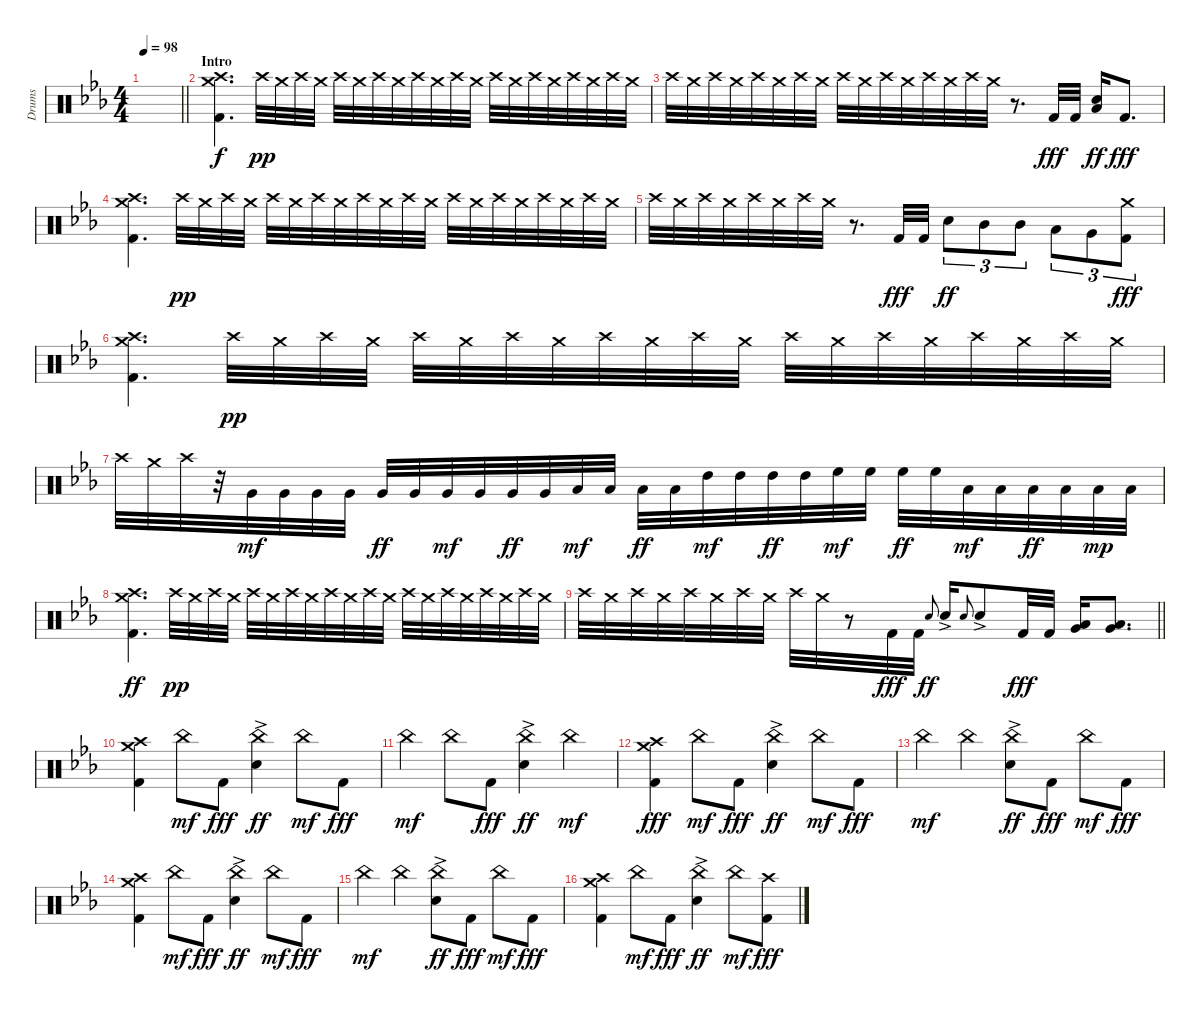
\track ("Drums" "Drums") {instrument percussion}
\staff {score}
\articulation defaults
\ts (4 4)
\tempo 98
\clef neutral
\barLineRight lightlight
\ks cminor
|
\section ("" "Intro")
("Crash high (hit)" "Crash medium (hit)" "Kick (hit) 2").4{d} "Crash high (hit)".32{dy pp volume 13} "Crash medium (hit)".32 "Crash high (hit)".32 "Crash medium (hit)".32 "Crash high (hit)".32 "Crash medium (hit)".32 "Crash high (hit)".32 "Crash medium (hit)".32 "Crash high (hit)".32 "Crash medium (hit)".32 "Crash high (hit)".32 "Crash medium (hit)".32 "Crash high (hit)".32 "Crash medium (hit)".32 "Crash high (hit)".32 "Crash medium (hit)".32 "Crash high (hit)".32 "Crash medium (hit)".32 "Crash high (hit)".32 "Crash medium (hit)".32 |
"Crash high (hit)".32 "Crash medium (hit)".32 "Crash high (hit)".32 "Crash medium (hit)".32 "Crash high (hit)".32 "Crash medium (hit)".32 "Crash high (hit)".32 "Crash medium (hit)".32 "Crash high (hit)".32 "Crash medium (hit)".32 "Crash high (hit)".32 "Crash medium (hit)".32 "Crash high (hit)".32 "Crash medium (hit)".32 "Crash high (hit)".32 "Crash medium (hit)".32 r.8{d} "Kick (hit) 2".32{dy fff volume 15} "Kick (hit) 2".32 ("Low Tom (hit)" "Electric Snare (hit)").16{dy ff} "Kick (hit) 2".8{d dy fff} |
("Crash high (hit)" "Crash medium (hit)" "Kick (hit) 2").4{d} "Crash high (hit)".32{dy pp volume 14} "Crash medium (hit)".32 "Crash high (hit)".32 "Crash medium (hit)".32 "Crash high (hit)".32 "Crash medium (hit)".32 "Crash high (hit)".32 "Crash medium (hit)".32 "Crash high (hit)".32 "Crash medium (hit)".32 "Crash high (hit)".32 "Crash medium (hit)".32 "Crash high (hit)".32 "Crash medium (hit)".32 "Crash high (hit)".32 "Crash medium (hit)".32 "Crash high (hit)".32 "Crash medium (hit)".32 "Crash high (hit)".32 "Crash medium (hit)".32 |
"Crash high (hit)".32 "Crash medium (hit)".32 "Crash high (hit)".32 "Crash medium (hit)".32 "Crash high (hit)".32 "Crash medium (hit)".32 "Crash high (hit)".32 "Crash medium (hit)".32 r.8{d} "Kick (hit) 2".32{dy fff volume 15} "Kick (hit) 2".32 "Electric Snare (hit)".8{tu (3 2) dy ff} "Mid Tom (hit)".8{tu (3 2)} "Mid Tom (hit)".8{tu (3 2)} "Low Tom (hit)".8{tu (3 2)} "Very Low Tom (hit)".8{tu (3 2)} ("Crash medium (hit)" "Kick (hit) 2").8{tu (3 2) dy fff} |
("Crash high (hit)" "Crash medium (hit)" "Kick (hit) 2").4{d} "Crash high (hit)".32{dy pp volume 14} "Crash medium (hit)".32 "Crash high (hit)".32 "Crash medium (hit)".32 "Crash high (hit)".32 "Crash medium (hit)".32 "Crash high (hit)".32 "Crash medium (hit)".32 "Crash high (hit)".32 "Crash medium (hit)".32 "Crash high (hit)".32 "Crash medium (hit)".32 "Crash high (hit)".32 "Crash medium (hit)".32 "Crash high (hit)".32 "Crash medium (hit)".32 "Crash high (hit)".32 "Crash medium (hit)".32 "Crash high (hit)".32 "Crash medium (hit)".32 |
"Crash high (hit)".32 "Crash medium (hit)".32 "Crash high (hit)".32 r.32 "Very Low Tom (hit)".32{dy mf volume 15} "Very Low Tom (hit)".32 "Very Low Tom (hit)".32 "Very Low Tom (hit)".32 "Very Low Tom (hit)".32{dy ff} "Very Low Tom (hit)".32 "Very Low Tom (hit)".32{dy mf} "Very Low Tom (hit)".32 "Very Low Tom (hit)".32{dy ff} "Very Low Tom (hit)".32 "Low Tom (hit)".32{dy mf} "Low Tom (hit)".32 "Low Tom (hit)".32{dy ff} "Low Tom (hit)".32 "High Tom (hit)".32{dy mf} "High Tom (hit)".32 "High Tom (hit)".32{dy ff} "High Tom (hit)".32 "High Floor Tom (hit)".32{dy mf} "High Floor Tom (hit)".32 "High Floor Tom (hit)".32{dy ff} "High Floor Tom (hit)".32 "Low Floor Tom (hit)".32{dy mf balance 16} "Low Floor Tom (hit)".32 "Low Floor Tom (hit)".32{dy ff} "Low Floor Tom (hit)".32 "Low Floor Tom (hit)".32{dy mp} "Low Floor Tom (hit)".32 |
("Crash high (hit)" "Crash medium (hit)" "Kick (hit) 2").4{d dy ff balance 8} "Crash high (hit)".32{dy pp volume 14} "Crash medium (hit)".32 "Crash high (hit)".32 "Crash medium (hit)".32 "Crash high (hit)".32 "Crash medium (hit)".32 "Crash high (hit)".32 "Crash medium (hit)".32 "Crash high (hit)".32 "Crash medium (hit)".32 "Crash high (hit)".32 "Crash medium (hit)".32 "Crash high (hit)".32 "Crash medium (hit)".32 "Crash high (hit)".32 "Crash medium (hit)".32 "Crash high (hit)".32 "Crash medium (hit)".32 "Crash high (hit)".32 "Crash medium (hit)".32 |
\barLineRight lightlight "Crash high (hit)".32 "Crash medium (hit)".32 "Crash high (hit)".32 "Crash medium (hit)".32 "Crash high (hit)".32 "Crash medium (hit)".32 "Crash high (hit)".32 "Crash medium (hit)".32 "Crash high (hit)".32 "Crash medium (hit)".32
r.8 "Kick (hit) 2".32{dy fff volume 15} "Kick (hit) 2".32 "Electric Snare (hit)".8{gr onbeat dy ff} "Electric Snare (hit)"{ac}.16 "Electric Snare (hit)".8{gr onbeat} "Electric Snare (hit)"{ac}.8 "Kick (hit) 2".32{dy fff} "Kick (hit) 2".32 ("Very Low Tom (hit)" "Low Floor Tom (hit)").16{balance 11} ("Very Low Tom (hit)" "Low Floor Tom (hit)").8{d} |
("Crash medium (hit)" "Crash high (hit)" "Kick (hit) 2").4{balance 8} "China (hit)".8{dy mf} "Kick (hit) 2".8{dy fff} ("China (hit)" "Electric Snare (hit)"{ac}).4{dy ff} "China (hit)".8{dy mf} "Kick (hit) 2".8{dy fff} |
"China (hit)".4{dy mf} "China (hit)".8 "Kick (hit) 2".8{dy fff} ("China (hit)" "Electric Snare (hit)"{ac}).4{dy ff} "China (hit)".4{dy mf} |
("Crash medium (hit)" "Crash high (hit)" "Kick (hit) 2").4{dy fff} "China (hit)".8{dy mf} "Kick (hit) 2".8{dy fff} ("China (hit)" "Electric Snare (hit)"{ac}).4{dy ff} "China (hit)".8{dy mf} "Kick (hit) 2".8{dy fff} |
"China (hit)".4{dy mf} "China (hit)".4 ("China (hit)" "Electric Snare (hit)"{ac}).8{dy ff} "Kick (hit) 2".8{dy fff} "China (hit)".8{dy mf} "Kick (hit) 2".8{dy fff} |
("Crash medium (hit)" "Crash high (hit)" "Kick (hit) 2").4 "China (hit)".8{dy mf} "Kick (hit) 2".8{dy fff} ("China (hit)" "Electric Snare (hit)"{ac}).4{dy ff} "China (hit)".8{dy mf} "Kick (hit) 2".8{dy fff} |
"China (hit)".4{dy mf} "China (hit)".4 ("China (hit)" "Electric Snare (hit)"{ac}).8{dy ff} "Kick (hit) 2".8{dy fff} "China (hit)".8{dy mf} "Kick (hit) 2".8{dy fff} |
("Crash medium (hit)" "Crash high (hit)" "Kick (hit) 2").4 "China (hit)".8{dy mf} "Kick (hit) 2".8{dy fff} ("China (hit)" "Electric Snare (hit)"{ac}).4{dy ff} "China (hit)".8{dy mf} ("Crash high (hit)" "Kick (hit) 2").8{dy fff}
